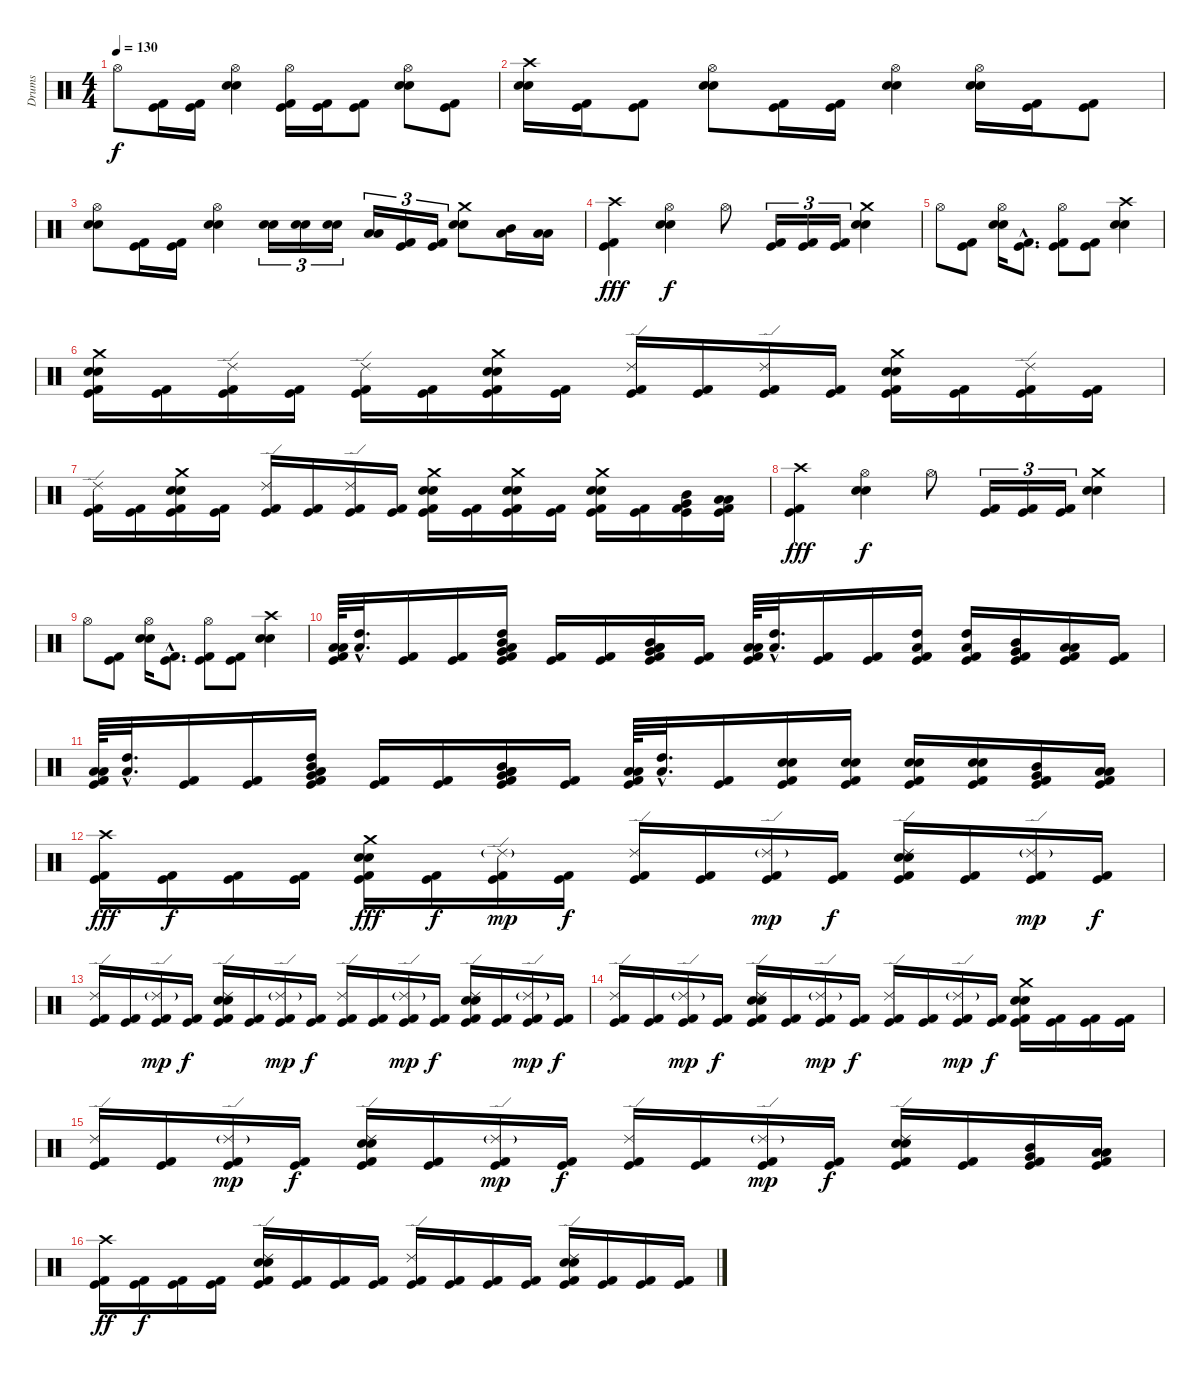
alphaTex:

\track ("Drums" "Drums") {instrument percussion}
\staff {score}
\articulation defaults
\ts (4 4)
\tempo 130
\clef neutral
\ks c "Hi-Hat (open)".8{dy f}
("Kick (hit) 2" "Kick (hit)").16 ("Kick (hit) 2" "Kick (hit)").16 ("Hi-Hat (open)" "Electric Snare (hit)" "Snare (hit) 2").4 ("Hi-Hat (open)" "Kick (hit) 2" "Kick (hit)").16 ("Kick (hit) 2" "Kick (hit)").16 ("Kick (hit) 2" "Kick (hit)").8 ("Hi-Hat (open)" "Electric Snare (hit)" "Snare (hit) 2").8 ("Kick (hit) 2" "Kick (hit)").8 |
("Crash high (hit)" "Electric Snare (hit)" "Snare (hit) 2").16 ("Kick (hit) 2" "Kick (hit)").16 ("Kick (hit) 2" "Kick (hit)").8 ("Hi-Hat (open)" "Electric Snare (hit)" "Snare (hit) 2").8 ("Kick (hit) 2" "Kick (hit)").16 ("Kick (hit) 2" "Kick (hit)").16 ("Hi-Hat (open)" "Electric Snare (hit)" "Snare (hit) 2").4 ("Hi-Hat (open)" "Electric Snare (hit)" "Snare (hit) 2").16 ("Kick (hit) 2" "Kick (hit)").16 ("Kick (hit) 2" "Kick (hit)").8 |
("Hi-Hat (open)" "Electric Snare (hit)" "Snare (hit) 2").8 ("Kick (hit) 2" "Kick (hit)").16 ("Kick (hit) 2" "Kick (hit)").16 ("Hi-Hat (open)" "Electric Snare (hit)" "Snare (hit) 2").4 ("Electric Snare (hit)" "Snare (hit) 2").16{tu (3 2)} ("Electric Snare (hit)" "Snare (hit) 2").16{tu (3 2)} ("Electric Snare (hit)" "Snare (hit) 2").16{tu (3 2)} ("Low Tom (hit)" "Low Floor Tom (hit)").16{tu (3 2)} ("Kick (hit) 2" "Kick (hit)").16{tu (3 2)} ("Kick (hit) 2" "Kick (hit)").16{tu (3 2)} ("Crash medium (hit)" "Electric Snare (hit)" "Snare (hit) 2").8 ("Mid Tom (hit)" "Low Floor Tom (hit)").16 ("Low Tom (hit)" "Low Floor Tom (hit)").16 |
("Crash high (hit)" "Kick (hit) 2" "Kick (hit)").4{dy fff} ("Hi-Hat (open)" "Electric Snare (hit)" "Snare (hit) 2").4{dy f} "Hi-Hat (open)".8 ("Kick (hit) 2" "Kick (hit)").16{tu (3 2)} ("Kick (hit) 2" "Kick (hit)").16{tu (3 2)} ("Kick (hit) 2" "Kick (hit)").16{tu (3 2)} ("Crash medium (hit)" "Electric Snare (hit)" "Snare (hit) 2").4 |
"Hi-Hat (open)".8 ("Kick (hit) 2" "Kick (hit)").8 ("Hi-Hat (open)" "Electric Snare (hit)" "Snare (hit) 2").16 ("Kick (hit) 2"{hac} "Kick (hit)"{hac}).8{d} ("Hi-Hat (open)" "Kick (hit) 2" "Kick (hit)").8 ("Kick (hit) 2" "Kick (hit)").8 ("Crash high (hit)" "Electric Snare (hit)" "Snare (hit) 2").4 |
("Crash medium (hit)" "Electric Snare (hit)" "Snare (hit) 2" "Kick (hit) 2" "Kick (hit)").16 ("Kick (hit) 2" "Kick (hit)").16 ("Ride (edge) 2" "Kick (hit) 2" "Kick (hit)").16 ("Kick (hit) 2" "Kick (hit)").16 ("Ride (edge) 2" "Kick (hit) 2" "Kick (hit)").16 ("Kick (hit) 2" "Kick (hit)").16 ("Crash medium (hit)" "Electric Snare (hit)" "Snare (hit) 2" "Kick (hit) 2" "Kick (hit)").16 ("Kick (hit) 2" "Kick (hit)").16 ("Ride (edge) 2" "Kick (hit) 2" "Kick (hit)").16 ("Kick (hit) 2" "Kick (hit)").16 ("Ride (edge) 2" "Kick (hit) 2" "Kick (hit)").16 ("Kick (hit) 2" "Kick (hit)").16 ("Crash medium (hit)" "Electric Snare (hit)" "Snare (hit) 2" "Kick (hit) 2" "Kick (hit)").16 ("Kick (hit) 2" "Kick (hit)").16 ("Ride (edge) 2" "Kick (hit) 2" "Kick (hit)").16 ("Kick (hit) 2" "Kick (hit)").16 |
("Ride (edge) 2" "Kick (hit) 2" "Kick (hit)").16 ("Kick (hit) 2" "Kick (hit)").16 ("Crash medium (hit)" "Electric Snare (hit)" "Snare (hit) 2" "Kick (hit) 2" "Kick (hit)").16 ("Kick (hit) 2" "Kick (hit)").16 ("Ride (edge) 2" "Kick (hit) 2" "Kick (hit)").16 ("Kick (hit) 2" "Kick (hit)").16 ("Ride (edge) 2" "Kick (hit) 2" "Kick (hit)").16 ("Kick (hit) 2" "Kick (hit)").16 ("Crash medium (hit)" "Electric Snare (hit)" "Snare (hit) 2" "Kick (hit) 2" "Kick (hit)").16 ("Kick (hit) 2" "Kick (hit)").16 ("Crash medium (hit)" "Electric Snare (hit)" "Snare (hit) 2" "Kick (hit) 2" "Kick (hit)").16 ("Kick (hit) 2" "Kick (hit)").16 ("Crash medium (hit)" "Electric Snare (hit)" "Snare (hit) 2" "Kick (hit) 2" "Kick (hit)").16 ("Kick (hit) 2" "Kick (hit)").16 ("Mid Tom (hit)" "Very Low Tom (hit)" "Kick (hit) 2" "Kick (hit)").16 ("Low Tom (hit)" "Low Floor Tom (hit)" "Kick (hit) 2" "Kick (hit)").16 |
("Crash high (hit)" "Kick (hit) 2" "Kick (hit)").4{dy fff} ("Hi-Hat (open)" "Electric Snare (hit)" "Snare (hit) 2").4{dy f} "Hi-Hat (open)".8 ("Kick (hit) 2" "Kick (hit)").16{tu (3 2)} ("Kick (hit) 2" "Kick (hit)").16{tu (3 2)} ("Kick (hit) 2" "Kick (hit)").16{tu (3 2)} ("Crash medium (hit)" "Electric Snare (hit)" "Snare (hit) 2").4 |
"Hi-Hat (open)".8 ("Kick (hit) 2" "Kick (hit)").8 ("Hi-Hat (open)" "Electric Snare (hit)" "Snare (hit) 2").16 ("Kick (hit) 2"{hac} "Kick (hit)"{hac}).8{d} ("Hi-Hat (open)" "Kick (hit) 2" "Kick (hit)").8 ("Kick (hit) 2" "Kick (hit)").8 ("Crash high (hit)" "Electric Snare (hit)" "Snare (hit) 2").4 |
("Low Tom (hit)" "Low Floor Tom (hit)" "Kick (hit) 2" "Kick (hit)").64 ("High Tom (hit)"{hac} "Low Tom (hit)"{hac}).32{d} ("Kick (hit) 2" "Kick (hit)").16 ("Kick (hit) 2" "Kick (hit)").16 ("High Tom (hit)" "Low Tom (hit)" "Mid Tom (hit)" "Very Low Tom (hit)" "Kick (hit) 2" "Kick (hit)").16 ("Kick (hit) 2" "Kick (hit)").16 ("Kick (hit) 2" "Kick (hit)").16 ("Mid Tom (hit)" "Very Low Tom (hit)" "Low Tom (hit)" "Low Floor Tom (hit)" "Kick (hit) 2" "Kick (hit)").16 ("Kick (hit) 2" "Kick (hit)").16 ("Low Tom (hit)" "Low Floor Tom (hit)" "Kick (hit) 2" "Kick (hit)").64 ("High Tom (hit)"{hac} "Low Tom (hit)"{hac}).32{d} ("Kick (hit) 2" "Kick (hit)").16 ("Kick (hit) 2" "Kick (hit)").16 ("High Tom (hit)" "Low Tom (hit)" "Kick (hit) 2" "Kick (hit)").16 ("High Tom (hit)" "Low Tom (hit)" "Kick (hit) 2" "Kick (hit)").16 ("Mid Tom (hit)" "Very Low Tom (hit)" "Kick (hit) 2" "Kick (hit)").16 ("Low Tom (hit)" "Low Floor Tom (hit)" "Kick (hit) 2" "Kick (hit)").16 ("Kick (hit) 2" "Kick (hit)").16 |
("Low Tom (hit)" "Low Floor Tom (hit)" "Kick (hit) 2" "Kick (hit)").64 ("High Tom (hit)"{hac} "Low Tom (hit)"{hac}).32{d} ("Kick (hit) 2" "Kick (hit)").16 ("Kick (hit) 2" "Kick (hit)").16 ("High Tom (hit)" "Low Tom (hit)" "Mid Tom (hit)" "Very Low Tom (hit)" "Kick (hit) 2" "Kick (hit)").16 ("Kick (hit) 2" "Kick (hit)").16 ("Kick (hit) 2" "Kick (hit)").16 ("Mid Tom (hit)" "Very Low Tom (hit)" "Low Tom (hit)" "Low Floor Tom (hit)" "Kick (hit) 2" "Kick (hit)").16 ("Kick (hit) 2" "Kick (hit)").16 ("Low Tom (hit)" "Low Floor Tom (hit)" "Kick (hit) 2" "Kick (hit)").64 ("High Tom (hit)"{hac} "Low Tom (hit)"{hac}).32{d} ("Kick (hit) 2" "Kick (hit)").16 ("Electric Snare (hit)" "Snare (hit) 2" "Kick (hit) 2" "Kick (hit)").16 ("Electric Snare (hit)" "Snare (hit) 2" "Kick (hit) 2" "Kick (hit)").16 ("Electric Snare (hit)" "Snare (hit) 2" "Kick (hit) 2" "Kick (hit)").16 ("Electric Snare (hit)" "Snare (hit) 2" "Kick (hit) 2" "Kick (hit)").16 ("Mid Tom (hit)" "Very Low Tom (hit)" "Kick (hit) 2" "Kick (hit)").16 ("Low Tom (hit)" "Low Floor Tom (hit)" "Kick (hit) 2" "Kick (hit)").16 |
("Crash high (hit)" "Kick (hit) 2" "Kick (hit)").16{dy fff} ("Kick (hit) 2" "Kick (hit)").16{dy f} ("Kick (hit) 2" "Kick (hit)").16 ("Kick (hit) 2" "Kick (hit)").16 ("Crash medium (hit)" "Electric Snare (hit)" "Snare (hit) 2" "Kick (hit) 2" "Kick (hit)").16{dy fff} ("Kick (hit) 2" "Kick (hit)").16{dy f} ("Ride (edge) 2"{g} "Kick (hit) 2" "Kick (hit)").16{dy mp} ("Kick (hit) 2" "Kick (hit)").16{dy f} ("Ride (edge) 2" "Kick (hit) 2" "Kick (hit)").16 ("Kick (hit) 2" "Kick (hit)").16 ("Ride (edge) 2"{g} "Kick (hit) 2" "Kick (hit)").16{dy mp} ("Kick (hit) 2" "Kick (hit)").16{dy f} ("Ride (edge) 2" "Electric Snare (hit)" "Snare (hit) 2" "Kick (hit) 2" "Kick (hit)").16 ("Kick (hit) 2" "Kick (hit)").16 ("Ride (edge) 2"{g} "Kick (hit) 2" "Kick (hit)").16{dy mp} ("Kick (hit) 2" "Kick (hit)").16{dy f} |
("Ride (edge) 2" "Kick (hit) 2" "Kick (hit)").16 ("Kick (hit) 2" "Kick (hit)").16 ("Ride (edge) 2"{g} "Kick (hit) 2" "Kick (hit)").16{dy mp} ("Kick (hit) 2" "Kick (hit)").16{dy f} ("Ride (edge) 2" "Electric Snare (hit)" "Snare (hit) 2" "Kick (hit) 2" "Kick (hit)").16 ("Kick (hit) 2" "Kick (hit)").16 ("Ride (edge) 2"{g} "Kick (hit) 2" "Kick (hit)").16{dy mp} ("Kick (hit) 2" "Kick (hit)").16{dy f} ("Ride (edge) 2" "Kick (hit) 2" "Kick (hit)").16 ("Kick (hit) 2" "Kick (hit)").16 ("Ride (edge) 2"{g} "Kick (hit) 2" "Kick (hit)").16{dy mp} ("Kick (hit) 2" "Kick (hit)").16{dy f} ("Ride (edge) 2" "Electric Snare (hit)" "Snare (hit) 2" "Kick (hit) 2" "Kick (hit)").16 ("Kick (hit) 2" "Kick (hit)").16 ("Ride (edge) 2"{g} "Kick (hit) 2" "Kick (hit)").16{dy mp} ("Kick (hit) 2" "Kick (hit)").16{dy f} |
("Ride (edge) 2" "Kick (hit) 2" "Kick (hit)").16 ("Kick (hit) 2" "Kick (hit)").16 ("Ride (edge) 2"{g} "Kick (hit) 2" "Kick (hit)").16{dy mp} ("Kick (hit) 2" "Kick (hit)").16{dy f} ("Ride (edge) 2" "Electric Snare (hit)" "Snare (hit) 2" "Kick (hit) 2" "Kick (hit)").16 ("Kick (hit) 2" "Kick (hit)").16 ("Ride (edge) 2"{g} "Kick (hit) 2" "Kick (hit)").16{dy mp} ("Kick (hit) 2" "Kick (hit)").16{dy f} ("Ride (edge) 2" "Kick (hit) 2" "Kick (hit)").16 ("Kick (hit) 2" "Kick (hit)").16 ("Ride (edge) 2"{g} "Kick (hit) 2" "Kick (hit)").16{dy mp} ("Kick (hit) 2" "Kick (hit)").16{dy f} ("Crash medium (hit)" "Electric Snare (hit)" "Snare (hit) 2" "Kick (hit) 2" "Kick (hit)").16 ("Kick (hit) 2" "Kick (hit)").16 ("Kick (hit) 2" "Kick (hit)").16 ("Kick (hit) 2" "Kick (hit)").16 |
("Ride (edge) 2" "Kick (hit) 2" "Kick (hit)").16 ("Kick (hit) 2" "Kick (hit)").16 ("Ride (edge) 2"{g} "Kick (hit) 2" "Kick (hit)").16{dy mp} ("Kick (hit) 2" "Kick (hit)").16{dy f} ("Ride (edge) 2" "Electric Snare (hit)" "Snare (hit) 2" "Kick (hit) 2" "Kick (hit)").16 ("Kick (hit) 2" "Kick (hit)").16 ("Ride (edge) 2"{g} "Kick (hit) 2" "Kick (hit)").16{dy mp} ("Kick (hit) 2" "Kick (hit)").16{dy f} ("Ride (edge) 2" "Kick (hit) 2" "Kick (hit)").16 ("Kick (hit) 2" "Kick (hit)").16 ("Ride (edge) 2"{g} "Kick (hit) 2" "Kick (hit)").16{dy mp} ("Kick (hit) 2" "Kick (hit)").16{dy f} ("Ride (edge) 2" "Electric Snare (hit)" "Snare (hit) 2" "Kick (hit) 2" "Kick (hit)").16 ("Kick (hit) 2" "Kick (hit)").16 ("Mid Tom (hit)" "Very Low Tom (hit)" "Kick (hit) 2" "Kick (hit)").16 ("Low Tom (hit)" "Low Floor Tom (hit)" "Kick (hit) 2" "Kick (hit)").16 |
("Crash high (hit)" "Kick (hit) 2" "Kick (hit)").16{dy ff} ("Kick (hit) 2" "Kick (hit)").16{dy f} ("Kick (hit) 2" "Kick (hit)").16 ("Kick (hit) 2" "Kick (hit)").16 ("Ride (edge) 2" "Electric Snare (hit)" "Snare (hit) 2" "Kick (hit) 2" "Kick (hit)").16 ("Kick (hit) 2" "Kick (hit)").16 ("Kick (hit) 2" "Kick (hit)").16 ("Kick (hit) 2" "Kick (hit)").16 ("Ride (edge) 2" "Kick (hit) 2" "Kick (hit)").16 ("Kick (hit) 2" "Kick (hit)").16 ("Kick (hit) 2" "Kick (hit)").16 ("Kick (hit) 2" "Kick (hit)").16 ("Ride (edge) 2" "Electric Snare (hit)" "Snare (hit) 2" "Kick (hit) 2" "Kick (hit)").16 ("Kick (hit) 2" "Kick (hit)").16 ("Kick (hit) 2" "Kick (hit)").16 ("Kick (hit) 2" "Kick (hit)").16
